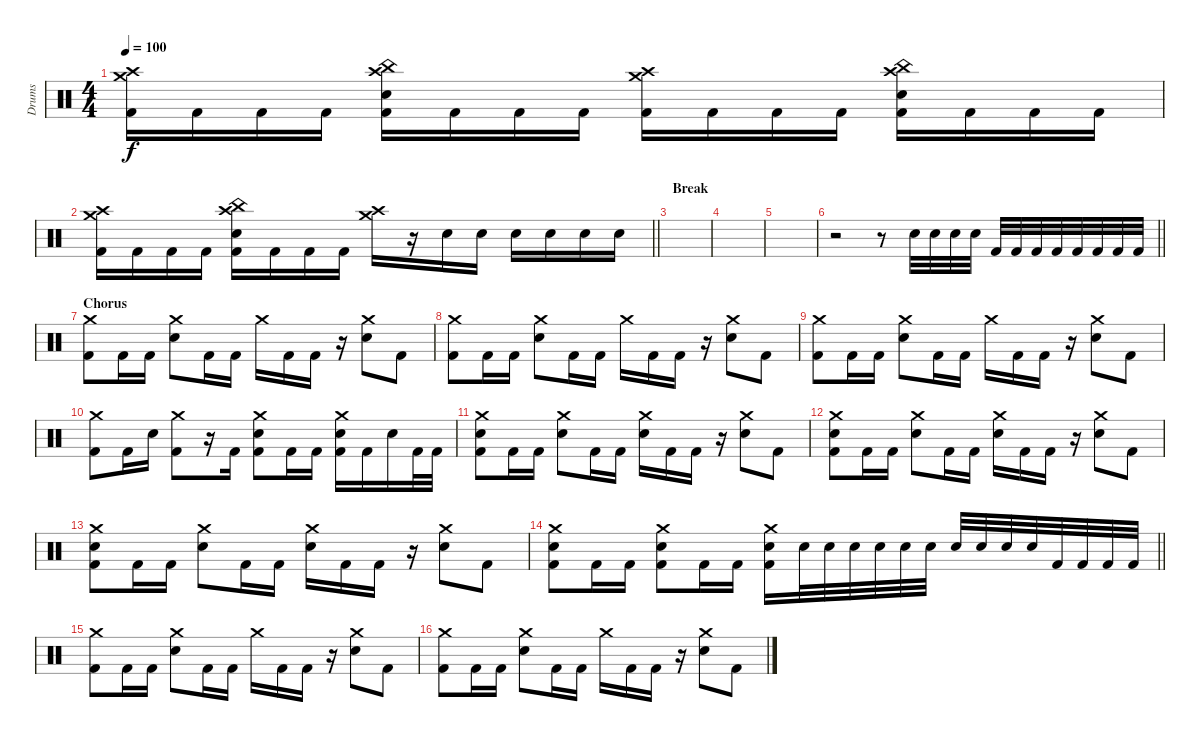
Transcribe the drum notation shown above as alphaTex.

\track ("Drums" "Drums") {instrument percussion}
\staff {score}
\articulation defaults
\ts (4 4)
\tempo 100
\clef neutral
\ks c
("Crash medium (hit)" "Crash high (hit)" "Kick (hit) 2").16{dy f} "Kick (hit) 2".16 "Kick (hit) 2".16 "Kick (hit) 2".16 ("China (hit)" "Crash high (hit)" "Electric Snare (hit)" "Kick (hit) 2").16 "Kick (hit) 2".16 "Kick (hit) 2".16 "Kick (hit) 2".16 ("Crash medium (hit)" "Crash high (hit)" "Kick (hit) 2").16 "Kick (hit) 2".16 "Kick (hit) 2".16 "Kick (hit) 2".16 ("China (hit)" "Crash high (hit)" "Electric Snare (hit)" "Kick (hit) 2").16 "Kick (hit) 2".16 "Kick (hit) 2".16 "Kick (hit) 2".16 |
\barLineRight lightlight
("Crash medium (hit)" "Crash high (hit)" "Kick (hit) 2").16 "Kick (hit) 2".16 "Kick (hit) 2".16 "Kick (hit) 2".16 ("China (hit)" "Crash high (hit)" "Electric Snare (hit)" "Kick (hit) 2").16 "Kick (hit) 2".16 "Kick (hit) 2".16 "Kick (hit) 2".16 ("Crash medium (hit)" "Crash high (hit)").16 r.16 "Electric Snare (hit)".16 "Electric Snare (hit)".16 "Electric Snare (hit)".16 "Electric Snare (hit)".16 "Electric Snare (hit)".16 "Electric Snare (hit)".16 |
\section ("" "Break")
|
|
|
\barLineRight lightlight
r.2 r.8 "Snare (hit) 2".32 "Snare (hit) 2".32 "Snare (hit) 2".32 "Snare (hit) 2".32 "Kick (hit) 2".32 "Kick (hit) 2".32 "Kick (hit) 2".32 "Kick (hit) 2".32 "Kick (hit) 2".32 "Kick (hit) 2".32 "Kick (hit) 2".32 "Kick (hit) 2".32 |
\section ("" "Chorus")
("Crash medium (hit)" "Kick (hit) 2").8 "Kick (hit) 2".16 "Kick (hit) 2".16 ("Crash medium (hit)" "Electric Snare (hit)").8 "Kick (hit) 2".16 "Kick (hit) 2".16 "Crash medium (hit)".16 "Kick (hit) 2".16 "Kick (hit) 2".16 r.16 ("Crash medium (hit)" "Electric Snare (hit)").8 "Kick (hit) 2".8 |
("Crash medium (hit)" "Kick (hit) 2").8 "Kick (hit) 2".16 "Kick (hit) 2".16 ("Crash medium (hit)" "Electric Snare (hit)").8 "Kick (hit) 2".16 "Kick (hit) 2".16 "Crash medium (hit)".16 "Kick (hit) 2".16 "Kick (hit) 2".16 r.16 ("Crash medium (hit)" "Electric Snare (hit)").8 "Kick (hit) 2".8 |
("Crash medium (hit)" "Kick (hit) 2").8 "Kick (hit) 2".16 "Kick (hit) 2".16 ("Crash medium (hit)" "Electric Snare (hit)").8 "Kick (hit) 2".16 "Kick (hit) 2".16 "Crash medium (hit)".16 "Kick (hit) 2".16 "Kick (hit) 2".16 r.16 ("Crash medium (hit)" "Electric Snare (hit)").8 "Kick (hit) 2".8 |
("Crash medium (hit)" "Kick (hit) 2").8 "Kick (hit) 2".16 "Electric Snare (hit)".16 ("Crash medium (hit)" "Kick (hit) 2").8 r.16 "Kick (hit) 2".16 ("Crash medium (hit)" "Electric Snare (hit)" "Kick (hit) 2").8 "Kick (hit) 2".16 "Kick (hit) 2".16 ("Crash medium (hit)" "Electric Snare (hit)" "Kick (hit) 2").16 "Kick (hit) 2".16 "Electric Snare (hit)".16 "Kick (hit) 2".32 "Kick (hit) 2".32 |
("Crash medium (hit)" "Electric Snare (hit)" "Kick (hit) 2").8 "Kick (hit) 2".16 "Kick (hit) 2".16 ("Crash medium (hit)" "Electric Snare (hit)").8 "Kick (hit) 2".16 "Kick (hit) 2".16 ("Crash medium (hit)" "Electric Snare (hit)").16 "Kick (hit) 2".16 "Kick (hit) 2".16 r.16 ("Crash medium (hit)" "Electric Snare (hit)").8 "Kick (hit) 2".8 |
("Crash medium (hit)" "Electric Snare (hit)" "Kick (hit) 2").8 "Kick (hit) 2".16 "Kick (hit) 2".16 ("Crash medium (hit)" "Electric Snare (hit)").8 "Kick (hit) 2".16 "Kick (hit) 2".16 ("Crash medium (hit)" "Electric Snare (hit)").16 "Kick (hit) 2".16 "Kick (hit) 2".16 r.16 ("Crash medium (hit)" "Electric Snare (hit)").8 "Kick (hit) 2".8 |
("Crash medium (hit)" "Electric Snare (hit)" "Kick (hit) 2").8 "Kick (hit) 2".16 "Kick (hit) 2".16 ("Crash medium (hit)" "Electric Snare (hit)").8 "Kick (hit) 2".16 "Kick (hit) 2".16 ("Crash medium (hit)" "Electric Snare (hit)").16 "Kick (hit) 2".16 "Kick (hit) 2".16 r.16 ("Crash medium (hit)" "Electric Snare (hit)").8 "Kick (hit) 2".8 |
\barLineRight lightlight
("Crash medium (hit)" "Electric Snare (hit)" "Kick (hit) 2").8 "Kick (hit) 2".16 "Kick (hit) 2".16 ("Crash medium (hit)" "Electric Snare (hit)" "Kick (hit) 2").8 "Kick (hit) 2".16 "Kick (hit) 2".16 ("Crash medium (hit)" "Electric Snare (hit)" "Kick (hit) 2").16 "Electric Snare (hit)".32 "Electric Snare (hit)".32 "Electric Snare (hit)".32 "Electric Snare (hit)".32 "Electric Snare (hit)".32 "Electric Snare (hit)".32 "Electric Snare (hit)".32 "Electric Snare (hit)".32 "Electric Snare (hit)".32 "Electric Snare (hit)".32 "Kick (hit) 2".32 "Kick (hit) 2".32 "Kick (hit) 2".32 "Kick (hit) 2".32 |
("Crash medium (hit)" "Kick (hit) 2").8 "Kick (hit) 2".16 "Kick (hit) 2".16 ("Crash medium (hit)" "Electric Snare (hit)").8 "Kick (hit) 2".16 "Kick (hit) 2".16 "Crash medium (hit)".16 "Kick (hit) 2".16 "Kick (hit) 2".16 r.16 ("Crash medium (hit)" "Electric Snare (hit)").8 "Kick (hit) 2".8 |
("Crash medium (hit)" "Kick (hit) 2").8 "Kick (hit) 2".16 "Kick (hit) 2".16 ("Crash medium (hit)" "Electric Snare (hit)").8 "Kick (hit) 2".16 "Kick (hit) 2".16 "Crash medium (hit)".16 "Kick (hit) 2".16 "Kick (hit) 2".16 r.16 ("Crash medium (hit)" "Electric Snare (hit)").8 "Kick (hit) 2".8
